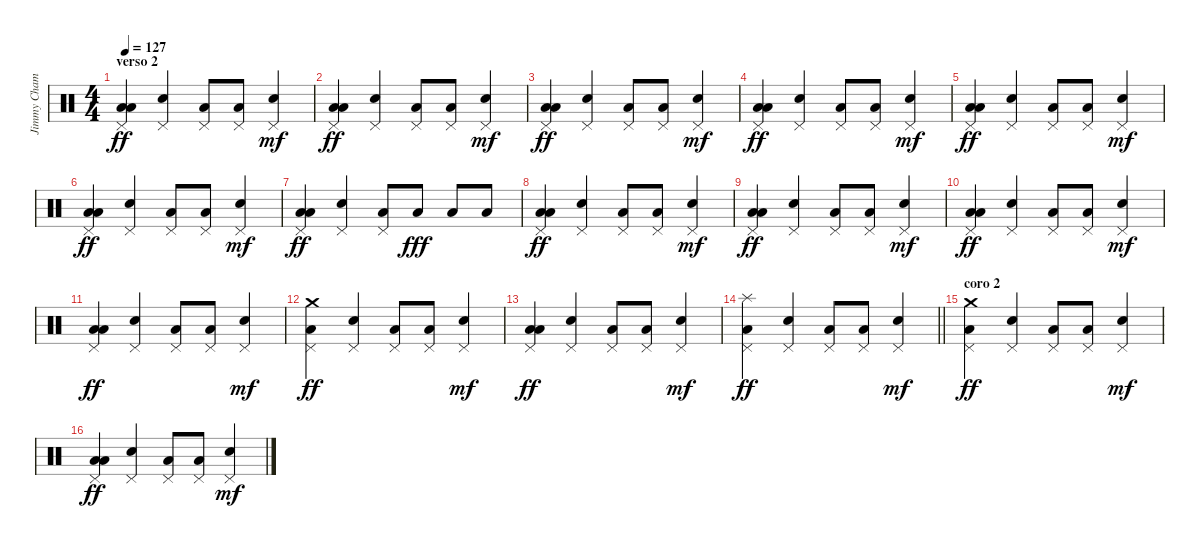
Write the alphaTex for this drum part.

\track ("Jimmy Chamberlin" "Jimmy Cham") {instrument percussion}
\staff {score}
\articulation defaults
\ts (4 4)
\section ("" "verso 2")
\tempo 127
\clef neutral
\ks c
("Low Floor Tom (hit)" "Low Tom (hit)" "Pedal Hi-Hat (hit)").4{dy ff} ("Snare (hit) 2" "Pedal Hi-Hat (hit)").4 ("Low Floor Tom (hit)" "Pedal Hi-Hat (hit)").8 ("Low Floor Tom (hit)" "Pedal Hi-Hat (hit)").8 ("Snare (hit) 2" "Pedal Hi-Hat (hit)").4{dy mf} |
("Low Floor Tom (hit)" "Low Tom (hit)" "Pedal Hi-Hat (hit)").4{dy ff} ("Snare (hit) 2" "Pedal Hi-Hat (hit)").4 ("Low Floor Tom (hit)" "Pedal Hi-Hat (hit)").8 ("Low Floor Tom (hit)" "Pedal Hi-Hat (hit)").8 ("Snare (hit) 2" "Pedal Hi-Hat (hit)").4{dy mf} |
("Low Floor Tom (hit)" "Low Tom (hit)" "Pedal Hi-Hat (hit)").4{dy ff} ("Snare (hit) 2" "Pedal Hi-Hat (hit)").4 ("Low Floor Tom (hit)" "Pedal Hi-Hat (hit)").8 ("Low Floor Tom (hit)" "Pedal Hi-Hat (hit)").8 ("Snare (hit) 2" "Pedal Hi-Hat (hit)").4{dy mf} |
("Low Floor Tom (hit)" "Low Tom (hit)" "Pedal Hi-Hat (hit)").4{dy ff} ("Snare (hit) 2" "Pedal Hi-Hat (hit)").4 ("Low Floor Tom (hit)" "Pedal Hi-Hat (hit)").8 ("Low Floor Tom (hit)" "Pedal Hi-Hat (hit)").8 ("Snare (hit) 2" "Pedal Hi-Hat (hit)").4{dy mf} |
("Low Floor Tom (hit)" "Low Tom (hit)" "Pedal Hi-Hat (hit)").4{dy ff} ("Snare (hit) 2" "Pedal Hi-Hat (hit)").4 ("Low Floor Tom (hit)" "Pedal Hi-Hat (hit)").8 ("Low Floor Tom (hit)" "Pedal Hi-Hat (hit)").8 ("Snare (hit) 2" "Pedal Hi-Hat (hit)").4{dy mf} |
("Low Floor Tom (hit)" "Low Tom (hit)" "Pedal Hi-Hat (hit)").4{dy ff} ("Snare (hit) 2" "Pedal Hi-Hat (hit)").4 ("Low Floor Tom (hit)" "Pedal Hi-Hat (hit)").8 ("Low Floor Tom (hit)" "Pedal Hi-Hat (hit)").8 ("Snare (hit) 2" "Pedal Hi-Hat (hit)").4{dy mf} |
("Low Floor Tom (hit)" "Low Tom (hit)" "Pedal Hi-Hat (hit)").4{dy ff} ("Snare (hit) 2" "Pedal Hi-Hat (hit)").4 ("Low Floor Tom (hit)" "Pedal Hi-Hat (hit)").8 "Low Tom (hit)".8{dy fff} "Low Tom (hit)".8 "Low Tom (hit)".8 |
("Low Floor Tom (hit)" "Low Tom (hit)" "Pedal Hi-Hat (hit)").4{dy ff} ("Snare (hit) 2" "Pedal Hi-Hat (hit)").4 ("Low Floor Tom (hit)" "Pedal Hi-Hat (hit)").8 ("Low Floor Tom (hit)" "Pedal Hi-Hat (hit)").8 ("Snare (hit) 2" "Pedal Hi-Hat (hit)").4{dy mf} |
("Low Floor Tom (hit)" "Low Tom (hit)" "Pedal Hi-Hat (hit)").4{dy ff} ("Snare (hit) 2" "Pedal Hi-Hat (hit)").4 ("Low Floor Tom (hit)" "Pedal Hi-Hat (hit)").8 ("Low Floor Tom (hit)" "Pedal Hi-Hat (hit)").8 ("Snare (hit) 2" "Pedal Hi-Hat (hit)").4{dy mf} |
("Low Floor Tom (hit)" "Low Tom (hit)" "Pedal Hi-Hat (hit)").4{dy ff} ("Snare (hit) 2" "Pedal Hi-Hat (hit)").4 ("Low Floor Tom (hit)" "Pedal Hi-Hat (hit)").8 ("Low Floor Tom (hit)" "Pedal Hi-Hat (hit)").8 ("Snare (hit) 2" "Pedal Hi-Hat (hit)").4{dy mf} |
("Low Floor Tom (hit)" "Low Tom (hit)" "Pedal Hi-Hat (hit)").4{dy ff} ("Snare (hit) 2" "Pedal Hi-Hat (hit)").4 ("Low Floor Tom (hit)" "Pedal Hi-Hat (hit)").8 ("Low Floor Tom (hit)" "Pedal Hi-Hat (hit)").8 ("Snare (hit) 2" "Pedal Hi-Hat (hit)").4{dy mf} |
("Crash medium (hit)" "Low Tom (hit)" "Pedal Hi-Hat (hit)").4{dy ff} ("Snare (hit) 2" "Pedal Hi-Hat (hit)").4 ("Low Floor Tom (hit)" "Pedal Hi-Hat (hit)").8 ("Low Floor Tom (hit)" "Pedal Hi-Hat (hit)").8 ("Snare (hit) 2" "Pedal Hi-Hat (hit)").4{dy mf} |
("Low Floor Tom (hit)" "Low Tom (hit)" "Pedal Hi-Hat (hit)").4{dy ff} ("Snare (hit) 2" "Pedal Hi-Hat (hit)").4 ("Low Floor Tom (hit)" "Pedal Hi-Hat (hit)").8 ("Low Floor Tom (hit)" "Pedal Hi-Hat (hit)").8 ("Snare (hit) 2" "Pedal Hi-Hat (hit)").4{dy mf} |
\barLineRight lightlight
("Splash (hit)" "Low Tom (hit)" "Pedal Hi-Hat (hit)").4{dy ff} ("Snare (hit) 2" "Pedal Hi-Hat (hit)").4 ("Low Floor Tom (hit)" "Pedal Hi-Hat (hit)").8 ("Low Floor Tom (hit)" "Pedal Hi-Hat (hit)").8 ("Snare (hit) 2" "Pedal Hi-Hat (hit)").4{dy mf} |
\section ("" "coro 2")
("Crash medium (hit)" "Low Tom (hit)" "Pedal Hi-Hat (hit)").4{dy ff} ("Snare (hit) 2" "Pedal Hi-Hat (hit)").4 ("Low Floor Tom (hit)" "Pedal Hi-Hat (hit)").8 ("Low Floor Tom (hit)" "Pedal Hi-Hat (hit)").8 ("Snare (hit) 2" "Pedal Hi-Hat (hit)").4{dy mf} |
("Low Floor Tom (hit)" "Low Tom (hit)" "Pedal Hi-Hat (hit)").4{dy ff} ("Snare (hit) 2" "Pedal Hi-Hat (hit)").4 ("Low Floor Tom (hit)" "Pedal Hi-Hat (hit)").8 ("Low Floor Tom (hit)" "Pedal Hi-Hat (hit)").8 ("Snare (hit) 2" "Pedal Hi-Hat (hit)").4{dy mf}
